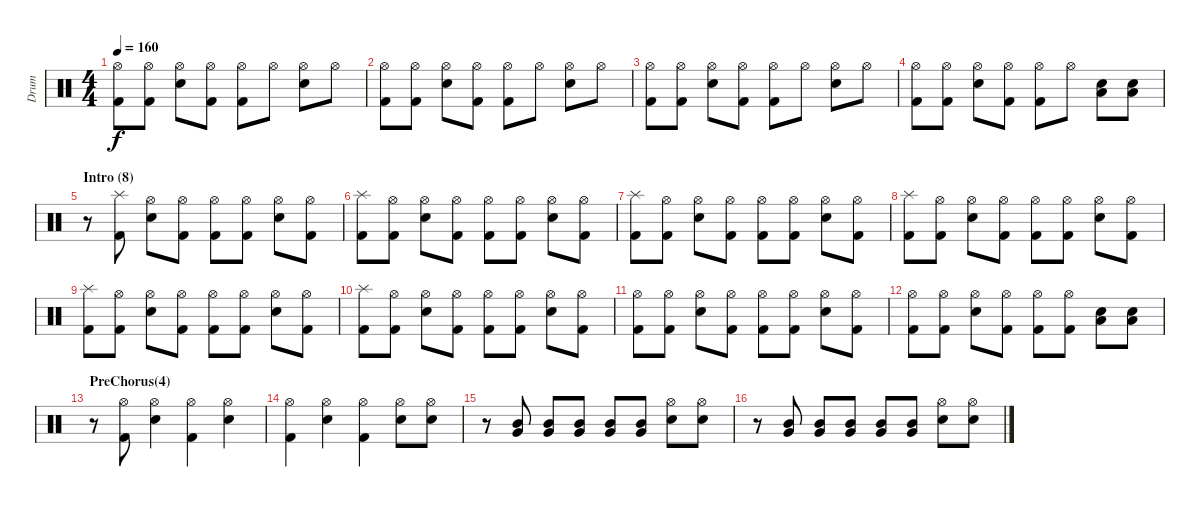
\track ("Drum" "Drum") {instrument percussion}
\staff {score}
\articulation defaults
\ts (4 4)
\tempo 160
\clef neutral
\ks c
("Hi-Hat (open)" "Kick (hit) 2").8{dy f} ("Hi-Hat (open)" "Kick (hit) 2").8 ("Hi-Hat (open)" "Snare (hit) 2").8 ("Hi-Hat (open)" "Kick (hit) 2").8 ("Hi-Hat (open)" "Kick (hit) 2").8 "Hi-Hat (open)".8 ("Hi-Hat (open)" "Snare (hit) 2").8 "Hi-Hat (open)".8 |
("Hi-Hat (open)" "Kick (hit) 2").8 ("Hi-Hat (open)" "Kick (hit) 2").8 ("Hi-Hat (open)" "Snare (hit) 2").8 ("Hi-Hat (open)" "Kick (hit) 2").8 ("Hi-Hat (open)" "Kick (hit) 2").8 "Hi-Hat (open)".8 ("Hi-Hat (open)" "Snare (hit) 2").8 "Hi-Hat (open)".8 |
("Hi-Hat (open)" "Kick (hit) 2").8 ("Hi-Hat (open)" "Kick (hit) 2").8 ("Hi-Hat (open)" "Snare (hit) 2").8 ("Hi-Hat (open)" "Kick (hit) 2").8 ("Hi-Hat (open)" "Kick (hit) 2").8 "Hi-Hat (open)".8 ("Hi-Hat (open)" "Snare (hit) 2").8 "Hi-Hat (open)".8 |
("Hi-Hat (open)" "Kick (hit) 2").8 ("Hi-Hat (open)" "Kick (hit) 2").8 ("Hi-Hat (open)" "Snare (hit) 2").8 ("Hi-Hat (open)" "Kick (hit) 2").8 ("Hi-Hat (open)" "Kick (hit) 2").8 "Hi-Hat (open)".8 ("Low Floor Tom (hit)" "Snare (hit) 2").8 ("Low Floor Tom (hit)" "Snare (hit) 2").8 |
\section ("" "Intro (8)")
r.8 ("Splash (hit)" "Kick (hit) 2").8 ("Hi-Hat (open)" "Snare (hit) 2").8 ("Hi-Hat (open)" "Kick (hit) 2").8 ("Hi-Hat (open)" "Kick (hit) 2").8 ("Hi-Hat (open)" "Kick (hit) 2").8 ("Hi-Hat (open)" "Snare (hit) 2").8 ("Hi-Hat (open)" "Kick (hit) 2").8 |
("Splash (hit)" "Kick (hit) 2").8 ("Hi-Hat (open)" "Kick (hit) 2").8 ("Hi-Hat (open)" "Snare (hit) 2").8 ("Hi-Hat (open)" "Kick (hit) 2").8 ("Hi-Hat (open)" "Kick (hit) 2").8 ("Hi-Hat (open)" "Kick (hit) 2").8 ("Hi-Hat (open)" "Snare (hit) 2").8 ("Hi-Hat (open)" "Kick (hit) 2").8 |
("Splash (hit)" "Kick (hit) 2").8 ("Hi-Hat (open)" "Kick (hit) 2").8 ("Hi-Hat (open)" "Snare (hit) 2").8 ("Hi-Hat (open)" "Kick (hit) 2").8 ("Hi-Hat (open)" "Kick (hit) 2").8 ("Hi-Hat (open)" "Kick (hit) 2").8 ("Hi-Hat (open)" "Snare (hit) 2").8 ("Hi-Hat (open)" "Kick (hit) 2").8 |
("Splash (hit)" "Kick (hit) 2").8 ("Hi-Hat (open)" "Kick (hit) 2").8 ("Hi-Hat (open)" "Snare (hit) 2").8 ("Hi-Hat (open)" "Kick (hit) 2").8 ("Hi-Hat (open)" "Kick (hit) 2").8 ("Hi-Hat (open)" "Kick (hit) 2").8 ("Hi-Hat (open)" "Snare (hit) 2").8 ("Hi-Hat (open)" "Kick (hit) 2").8 |
("Splash (hit)" "Kick (hit) 2").8 ("Hi-Hat (open)" "Kick (hit) 2").8 ("Hi-Hat (open)" "Snare (hit) 2").8 ("Hi-Hat (open)" "Kick (hit) 2").8 ("Hi-Hat (open)" "Kick (hit) 2").8 ("Hi-Hat (open)" "Kick (hit) 2").8 ("Hi-Hat (open)" "Snare (hit) 2").8 ("Hi-Hat (open)" "Kick (hit) 2").8 |
("Splash (hit)" "Kick (hit) 2").8 ("Hi-Hat (open)" "Kick (hit) 2").8 ("Hi-Hat (open)" "Snare (hit) 2").8 ("Hi-Hat (open)" "Kick (hit) 2").8 ("Hi-Hat (open)" "Kick (hit) 2").8 ("Hi-Hat (open)" "Kick (hit) 2").8 ("Hi-Hat (open)" "Snare (hit) 2").8 ("Hi-Hat (open)" "Kick (hit) 2").8 |
("Hi-Hat (open)" "Kick (hit) 2").8 ("Hi-Hat (open)" "Kick (hit) 2").8 ("Hi-Hat (open)" "Snare (hit) 2").8 ("Hi-Hat (open)" "Kick (hit) 2").8 ("Hi-Hat (open)" "Kick (hit) 2").8 ("Hi-Hat (open)" "Kick (hit) 2").8 ("Hi-Hat (open)" "Snare (hit) 2").8 ("Hi-Hat (open)" "Kick (hit) 2").8 |
("Hi-Hat (open)" "Kick (hit) 2").8 ("Hi-Hat (open)" "Kick (hit) 2").8 ("Hi-Hat (open)" "Snare (hit) 2").8 ("Hi-Hat (open)" "Kick (hit) 2").8 ("Hi-Hat (open)" "Kick (hit) 2").8 ("Hi-Hat (open)" "Kick (hit) 2").8 ("Low Floor Tom (hit)" "Snare (hit) 2").8 ("Low Floor Tom (hit)" "Snare (hit) 2").8 |
\section ("" "PreChorus(4)")
r.8 ("Hi-Hat (open)" "Kick (hit) 2").8 ("Hi-Hat (open)" "Snare (hit) 2").4 ("Hi-Hat (open)" "Kick (hit) 2").4 ("Hi-Hat (open)" "Snare (hit) 2").4 |
("Hi-Hat (open)" "Kick (hit) 2").4 ("Hi-Hat (open)" "Snare (hit) 2").4 ("Hi-Hat (open)" "Kick (hit) 2").4 ("Hi-Hat (open)" "Snare (hit) 2").8 ("Hi-Hat (open)" "Snare (hit) 2").8 |
r.8 ("Mid Tom (hit)" "Very Low Tom (hit)").8 ("Mid Tom (hit)" "Very Low Tom (hit)").8 ("Mid Tom (hit)" "Very Low Tom (hit)").8 ("Mid Tom (hit)" "Very Low Tom (hit)").8 ("Mid Tom (hit)" "Very Low Tom (hit)").8 ("Hi-Hat (open)" "Snare (hit) 2").8 ("Hi-Hat (open)" "Snare (hit) 2").8 |
r.8 ("Mid Tom (hit)" "Very Low Tom (hit)").8 ("Mid Tom (hit)" "Very Low Tom (hit)").8 ("Mid Tom (hit)" "Very Low Tom (hit)").8 ("Mid Tom (hit)" "Very Low Tom (hit)").8 ("Mid Tom (hit)" "Very Low Tom (hit)").8 ("Hi-Hat (open)" "Snare (hit) 2").8 ("Hi-Hat (open)" "Snare (hit) 2").8
